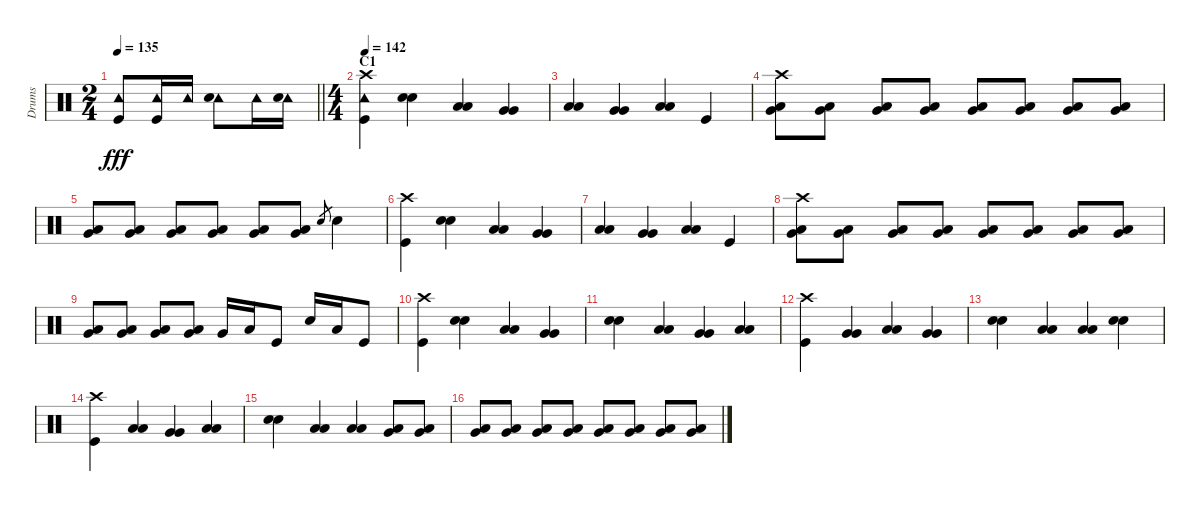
\track ("Drums" "Drums") {instrument percussion}
\staff {score}
\articulation defaults
\ts (2 4)
\tempo 135
\clef neutral
\barLineRight lightlight
\ks c
("Tambourine (hit)" "Kick (hit)").8{dy fff} ("Tambourine (hit)" "Kick (hit)").16 "Tambourine (hit)".16 ("Tambourine (hit)" "Snare (hit) 2").8 "Tambourine (hit)".16 ("Tambourine (hit)" "Snare (hit) 2").16 |
\ts (4 4)
\section ("" "C1")
\tempo 142
("Crash high (hit)" "Tambourine (hit)" "Kick (hit)").4 ("Snare (hit) 2" "Snare (hit) 2").4 ("Low Tom (hit)" "Low Tom (hit)").4 ("Very Low Tom (hit)" "Very Low Tom (hit)").4 |
("Low Floor Tom (hit)" "Low Floor Tom (hit)").4 ("Very Low Tom (hit)" "Very Low Tom (hit)").4 ("Low Floor Tom (hit)" "Low Floor Tom (hit)").4 "Kick (hit)".4 |
("Crash high (hit)" "Very Low Tom (hit)" "Low Floor Tom (hit)").8 ("Very Low Tom (hit)" "Low Floor Tom (hit)").8 ("Very Low Tom (hit)" "Low Floor Tom (hit)").8 ("Very Low Tom (hit)" "Low Floor Tom (hit)").8 ("Very Low Tom (hit)" "Low Floor Tom (hit)").8 ("Very Low Tom (hit)" "Low Floor Tom (hit)").8 ("Very Low Tom (hit)" "Low Floor Tom (hit)").8 ("Very Low Tom (hit)" "Low Floor Tom (hit)").8 |
("Very Low Tom (hit)" "Low Floor Tom (hit)").8 ("Very Low Tom (hit)" "Low Floor Tom (hit)").8 ("Very Low Tom (hit)" "Low Floor Tom (hit)").8 ("Very Low Tom (hit)" "Low Floor Tom (hit)").8 ("Very Low Tom (hit)" "Low Floor Tom (hit)").8 ("Very Low Tom (hit)" "Low Floor Tom (hit)").8 "Snare (hit) 2".8{gr} "Snare (hit) 2".4 |
("Crash high (hit)" "Kick (hit)").4 ("Snare (hit) 2" "Snare (hit) 2").4 ("Low Tom (hit)" "Low Tom (hit)").4 ("Very Low Tom (hit)" "Very Low Tom (hit)").4 |
("Low Floor Tom (hit)" "Low Floor Tom (hit)").4 ("Very Low Tom (hit)" "Very Low Tom (hit)").4 ("Low Floor Tom (hit)" "Low Floor Tom (hit)").4 "Kick (hit)".4 |
("Crash high (hit)" "Very Low Tom (hit)" "Low Floor Tom (hit)").8 ("Very Low Tom (hit)" "Low Floor Tom (hit)").8 ("Very Low Tom (hit)" "Low Floor Tom (hit)").8 ("Very Low Tom (hit)" "Low Floor Tom (hit)").8 ("Very Low Tom (hit)" "Low Floor Tom (hit)").8 ("Very Low Tom (hit)" "Low Floor Tom (hit)").8 ("Very Low Tom (hit)" "Low Floor Tom (hit)").8 ("Very Low Tom (hit)" "Low Floor Tom (hit)").8 |
("Very Low Tom (hit)" "Low Floor Tom (hit)").8 ("Very Low Tom (hit)" "Low Floor Tom (hit)").8 ("Very Low Tom (hit)" "Low Floor Tom (hit)").8 ("Very Low Tom (hit)" "Low Floor Tom (hit)").8 "Very Low Tom (hit)".16 "Low Floor Tom (hit)".16 "Kick (hit)".8 "Snare (hit) 2".16 "Low Floor Tom (hit)".16 "Kick (hit)".8 |
("Crash high (hit)" "Kick (hit)").4 ("Snare (hit) 2" "Snare (hit) 2").4 ("Low Tom (hit)" "Low Tom (hit)").4 ("Very Low Tom (hit)" "Very Low Tom (hit)").4 |
("Snare (hit) 2" "Snare (hit) 2").4 ("Low Tom (hit)" "Low Tom (hit)").4 ("Very Low Tom (hit)" "Very Low Tom (hit)").4 ("Low Floor Tom (hit)" "Low Floor Tom (hit)").4 |
("Crash high (hit)" "Kick (hit)").4 ("Very Low Tom (hit)" "Very Low Tom (hit)").4 ("Low Tom (hit)" "Low Tom (hit)").4 ("Very Low Tom (hit)" "Very Low Tom (hit)").4 |
("Snare (hit) 2" "Snare (hit) 2").4 ("Low Tom (hit)" "Low Tom (hit)").4 ("Low Floor Tom (hit)" "Low Floor Tom (hit)").4 ("Snare (hit) 2" "Snare (hit) 2").4 |
("Crash high (hit)" "Kick (hit)").4 ("Low Tom (hit)" "Low Tom (hit)").4 ("Very Low Tom (hit)" "Very Low Tom (hit)").4 ("Low Floor Tom (hit)" "Low Floor Tom (hit)").4 |
("Snare (hit) 2" "Snare (hit) 2").4 ("Low Tom (hit)" "Low Tom (hit)").4 ("Low Tom (hit)" "Low Tom (hit)").4 ("Very Low Tom (hit)" "Low Floor Tom (hit)").8 ("Very Low Tom (hit)" "Low Floor Tom (hit)").8 |
("Very Low Tom (hit)" "Low Floor Tom (hit)").8 ("Very Low Tom (hit)" "Low Floor Tom (hit)").8 ("Very Low Tom (hit)" "Low Floor Tom (hit)").8 ("Very Low Tom (hit)" "Low Floor Tom (hit)").8 ("Very Low Tom (hit)" "Low Floor Tom (hit)").8 ("Very Low Tom (hit)" "Low Floor Tom (hit)").8 ("Very Low Tom (hit)" "Low Floor Tom (hit)").8 ("Very Low Tom (hit)" "Low Floor Tom (hit)").8
